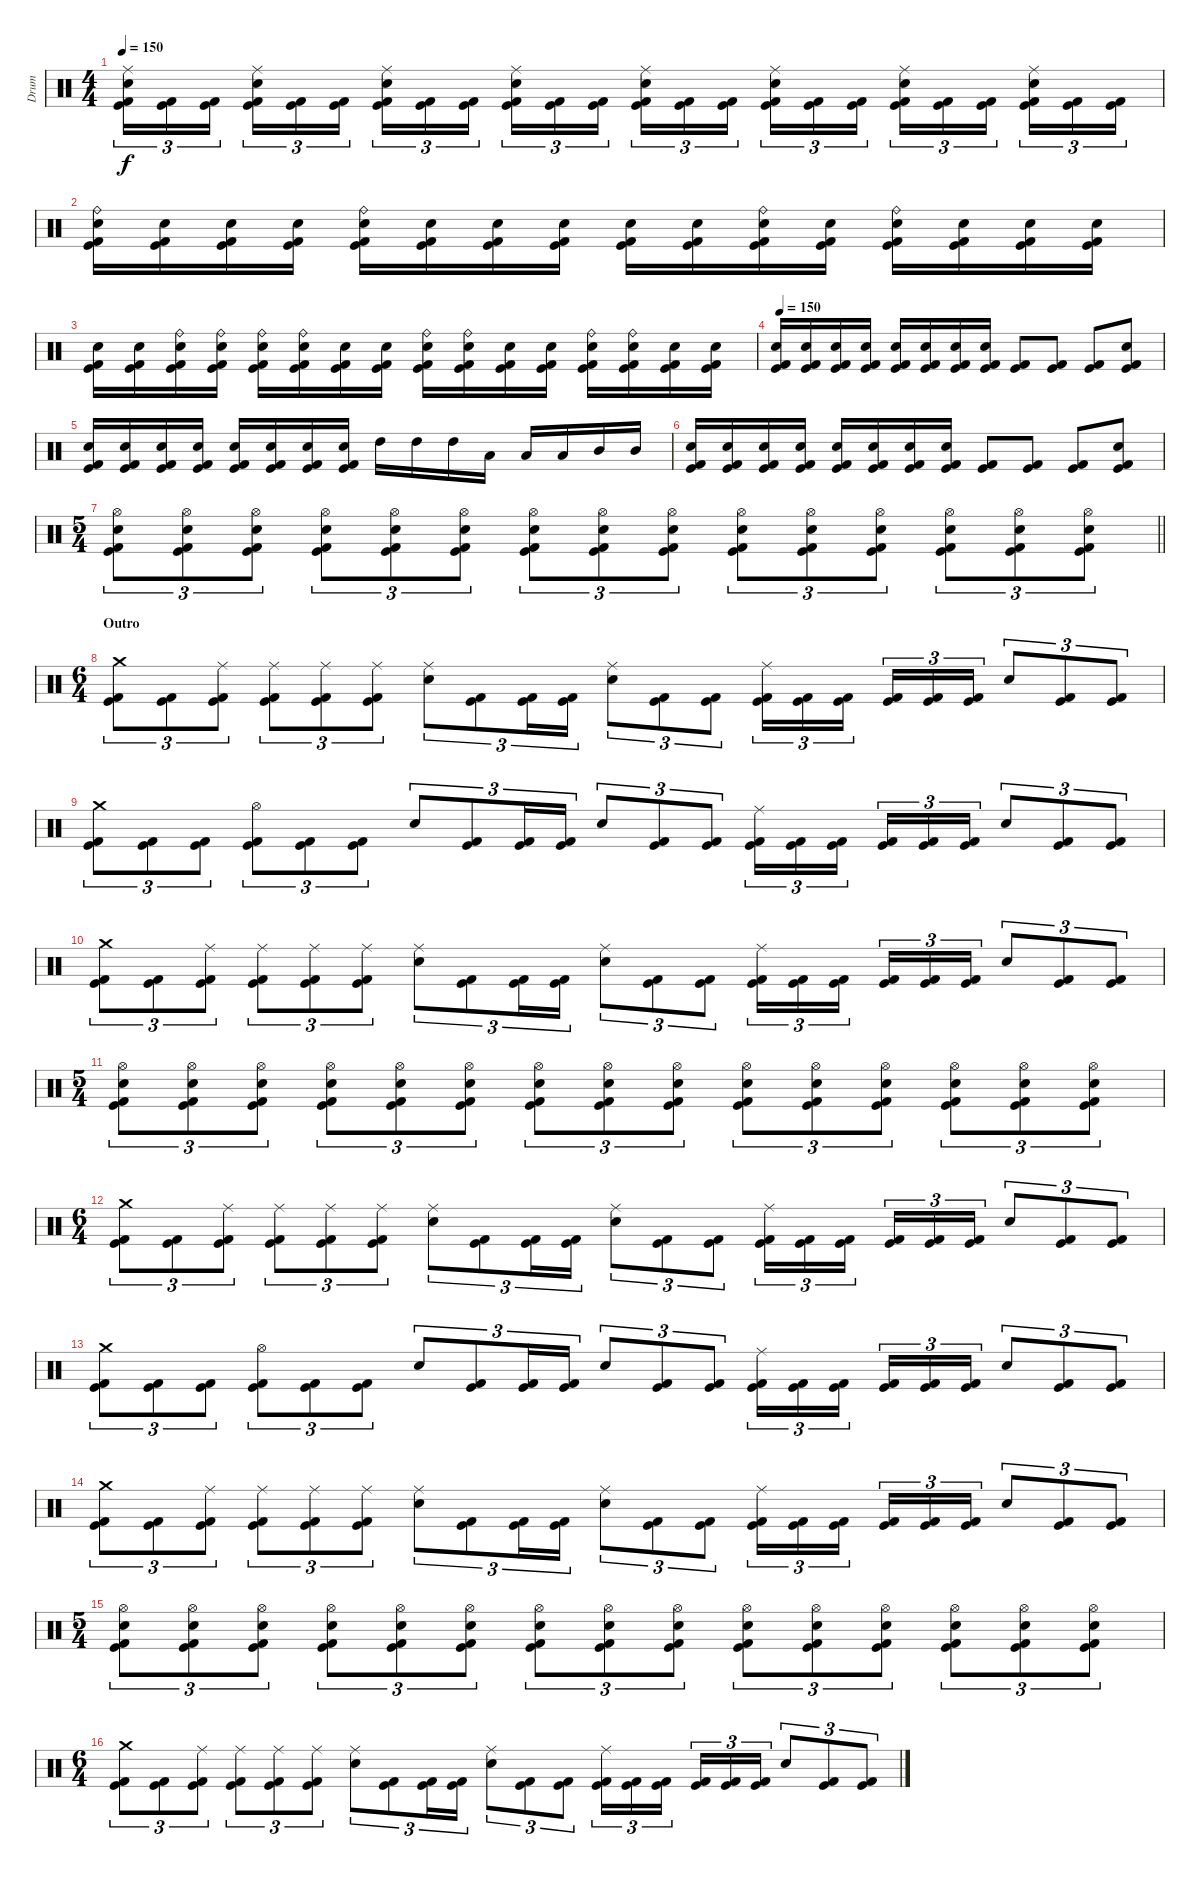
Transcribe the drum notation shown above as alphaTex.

\track ("Drum" "Drum") {instrument percussion}
\staff {score}
\articulation defaults
\ts (4 4)
\tempo 150
\clef neutral
\ks c
("Ride (middle)" "Electric Snare (hit)" "Kick (hit)" "Kick (hit) 2").16{tu (3 2) dy f} ("Kick (hit)" "Kick (hit) 2").16{tu (3 2)} ("Kick (hit)" "Kick (hit) 2").16{tu (3 2) beam splitsecondary} ("Ride (middle)" "Electric Snare (hit)" "Kick (hit)" "Kick (hit) 2").16{tu (3 2)} ("Kick (hit)" "Kick (hit) 2").16{tu (3 2)} ("Kick (hit)" "Kick (hit) 2").16{tu (3 2)} ("Ride (middle)" "Electric Snare (hit)" "Kick (hit)" "Kick (hit) 2").16{tu (3 2)} ("Kick (hit)" "Kick (hit) 2").16{tu (3 2)} ("Kick (hit)" "Kick (hit) 2").16{tu (3 2) beam splitsecondary} ("Ride (middle)" "Electric Snare (hit)" "Kick (hit)" "Kick (hit) 2").16{tu (3 2)} ("Kick (hit)" "Kick (hit) 2").16{tu (3 2)} ("Kick (hit)" "Kick (hit) 2").16{tu (3 2)} ("Ride (middle)" "Electric Snare (hit)" "Kick (hit)" "Kick (hit) 2").16{tu (3 2)} ("Kick (hit)" "Kick (hit) 2").16{tu (3 2)} ("Kick (hit)" "Kick (hit) 2").16{tu (3 2) beam splitsecondary} ("Ride (middle)" "Electric Snare (hit)" "Kick (hit)" "Kick (hit) 2").16{tu (3 2)} ("Kick (hit)" "Kick (hit) 2").16{tu (3 2)} ("Kick (hit)" "Kick (hit) 2").16{tu (3 2)} ("Ride (middle)" "Electric Snare (hit)" "Kick (hit)" "Kick (hit) 2").16{tu (3 2)} ("Kick (hit)" "Kick (hit) 2").16{tu (3 2)} ("Kick (hit)" "Kick (hit) 2").16{tu (3 2) beam splitsecondary} ("Ride (middle)" "Electric Snare (hit)" "Kick (hit)" "Kick (hit) 2").16{tu (3 2)} ("Kick (hit)" "Kick (hit) 2").16{tu (3 2)} ("Kick (hit)" "Kick (hit) 2").16{tu (3 2)} |
("Ride (bell)" "Electric Snare (hit)" "Kick (hit)" "Kick (hit) 2").16 ("Electric Snare (hit)" "Kick (hit)" "Kick (hit) 2").16 ("Electric Snare (hit)" "Kick (hit)" "Kick (hit) 2").16 ("Electric Snare (hit)" "Kick (hit)" "Kick (hit) 2").16 ("Ride (bell)" "Electric Snare (hit)" "Kick (hit)" "Kick (hit) 2").16 ("Electric Snare (hit)" "Kick (hit)" "Kick (hit) 2").16 ("Electric Snare (hit)" "Kick (hit)" "Kick (hit) 2").16 ("Electric Snare (hit)" "Kick (hit)" "Kick (hit) 2").16 ("Electric Snare (hit)" "Kick (hit)" "Kick (hit) 2").16 ("Electric Snare (hit)" "Kick (hit)" "Kick (hit) 2").16 ("Ride (bell)" "Electric Snare (hit)" "Kick (hit)" "Kick (hit) 2").16 ("Electric Snare (hit)" "Kick (hit)" "Kick (hit) 2").16 ("Ride (bell)" "Electric Snare (hit)" "Kick (hit)" "Kick (hit) 2").16 ("Electric Snare (hit)" "Kick (hit)" "Kick (hit) 2").16 ("Electric Snare (hit)" "Kick (hit)" "Kick (hit) 2").16 ("Electric Snare (hit)" "Kick (hit)" "Kick (hit) 2").16 |
("Electric Snare (hit)" "Kick (hit)" "Kick (hit) 2").16 ("Electric Snare (hit)" "Kick (hit)" "Kick (hit) 2").16 ("Ride (bell)" "Electric Snare (hit)" "Kick (hit)" "Kick (hit) 2").16 ("Ride (bell)" "Electric Snare (hit)" "Kick (hit)" "Kick (hit) 2").16 ("Ride (bell)" "Electric Snare (hit)" "Kick (hit)" "Kick (hit) 2").16 ("Ride (bell)" "Electric Snare (hit)" "Kick (hit)" "Kick (hit) 2").16 ("Electric Snare (hit)" "Kick (hit)" "Kick (hit) 2").16 ("Electric Snare (hit)" "Kick (hit)" "Kick (hit) 2").16 ("Ride (bell)" "Electric Snare (hit)" "Kick (hit)" "Kick (hit) 2").16 ("Ride (bell)" "Electric Snare (hit)" "Kick (hit)" "Kick (hit) 2").16 ("Electric Snare (hit)" "Kick (hit)" "Kick (hit) 2").16 ("Electric Snare (hit)" "Kick (hit)" "Kick (hit) 2").16 ("Ride (bell)" "Electric Snare (hit)" "Kick (hit)" "Kick (hit) 2").16 ("Ride (bell)" "Electric Snare (hit)" "Kick (hit)" "Kick (hit) 2").16 ("Electric Snare (hit)" "Kick (hit)" "Kick (hit) 2").16 ("Electric Snare (hit)" "Kick (hit)" "Kick (hit) 2").16 |
\tempo 150
("Electric Snare (hit)" "Kick (hit)" "Kick (hit) 2").16 ("Electric Snare (hit)" "Kick (hit)" "Kick (hit) 2").16 ("Electric Snare (hit)" "Kick (hit)" "Kick (hit) 2").16 ("Electric Snare (hit)" "Kick (hit)" "Kick (hit) 2").16 ("Electric Snare (hit)" "Kick (hit)" "Kick (hit) 2").16 ("Electric Snare (hit)" "Kick (hit)" "Kick (hit) 2").16 ("Electric Snare (hit)" "Kick (hit)" "Kick (hit) 2").16 ("Electric Snare (hit)" "Kick (hit)" "Kick (hit) 2").16 ("Kick (hit)" "Kick (hit) 2").8 ("Kick (hit)" "Kick (hit) 2").8 ("Kick (hit)" "Kick (hit) 2").8 ("Electric Snare (hit)" "Kick (hit)" "Kick (hit) 2").8 |
("Electric Snare (hit)" "Kick (hit)" "Kick (hit) 2").16 ("Electric Snare (hit)" "Kick (hit)" "Kick (hit) 2").16 ("Electric Snare (hit)" "Kick (hit)" "Kick (hit) 2").16 ("Electric Snare (hit)" "Kick (hit)" "Kick (hit) 2").16 ("Electric Snare (hit)" "Kick (hit)" "Kick (hit) 2").16 ("Electric Snare (hit)" "Kick (hit)" "Kick (hit) 2").16 ("Electric Snare (hit)" "Kick (hit)" "Kick (hit) 2").16 ("Electric Snare (hit)" "Kick (hit)" "Kick (hit) 2").16 "High Tom (hit)".16 "High Tom (hit)".16 "High Tom (hit)".16 "Low Tom (hit)".16 "Low Tom (hit)".16 "Low Tom (hit)".16 "Mid Tom (hit)".16 "Mid Tom (hit)".16 |
("Electric Snare (hit)" "Kick (hit)" "Kick (hit) 2").16 ("Electric Snare (hit)" "Kick (hit)" "Kick (hit) 2").16 ("Electric Snare (hit)" "Kick (hit)" "Kick (hit) 2").16 ("Electric Snare (hit)" "Kick (hit)" "Kick (hit) 2").16 ("Electric Snare (hit)" "Kick (hit)" "Kick (hit) 2").16 ("Electric Snare (hit)" "Kick (hit)" "Kick (hit) 2").16 ("Electric Snare (hit)" "Kick (hit)" "Kick (hit) 2").16 ("Electric Snare (hit)" "Kick (hit)" "Kick (hit) 2").16 ("Kick (hit)" "Kick (hit) 2").8 ("Kick (hit)" "Kick (hit) 2").8 ("Kick (hit)" "Kick (hit) 2").8 ("Electric Snare (hit)" "Kick (hit)" "Kick (hit) 2").8 |
\ts (5 4)
\barLineRight lightlight
("Hi-Hat (open)" "Electric Snare (hit)" "Kick (hit)" "Kick (hit) 2").8{tu (3 2)} ("Hi-Hat (open)" "Electric Snare (hit)" "Kick (hit)" "Kick (hit) 2").8{tu (3 2)} ("Hi-Hat (open)" "Electric Snare (hit)" "Kick (hit)" "Kick (hit) 2").8{tu (3 2)} ("Hi-Hat (open)" "Electric Snare (hit)" "Kick (hit)" "Kick (hit) 2").8{tu (3 2)} ("Hi-Hat (open)" "Electric Snare (hit)" "Kick (hit)" "Kick (hit) 2").8{tu (3 2)} ("Hi-Hat (open)" "Electric Snare (hit)" "Kick (hit)" "Kick (hit) 2").8{tu (3 2)} ("Hi-Hat (open)" "Electric Snare (hit)" "Kick (hit)" "Kick (hit) 2").8{tu (3 2)} ("Hi-Hat (open)" "Electric Snare (hit)" "Kick (hit)" "Kick (hit) 2").8{tu (3 2)} ("Hi-Hat (open)" "Electric Snare (hit)" "Kick (hit)" "Kick (hit) 2").8{tu (3 2)} ("Hi-Hat (open)" "Electric Snare (hit)" "Kick (hit)" "Kick (hit) 2").8{tu (3 2)} ("Hi-Hat (open)" "Electric Snare (hit)" "Kick (hit)" "Kick (hit) 2").8{tu (3 2)} ("Hi-Hat (open)" "Electric Snare (hit)" "Kick (hit)" "Kick (hit) 2").8{tu (3 2)} ("Hi-Hat (open)" "Electric Snare (hit)" "Kick (hit)" "Kick (hit) 2").8{tu (3 2)} ("Hi-Hat (open)" "Electric Snare (hit)" "Kick (hit)" "Kick (hit) 2").8{tu (3 2)} ("Hi-Hat (open)" "Electric Snare (hit)" "Kick (hit)" "Kick (hit) 2").8{tu (3 2)} |
\ts (6 4)
\section ("" "Outro")
("Crash medium (hit)" "Kick (hit)" "Kick (hit) 2").8{tu (3 2)} ("Kick (hit)" "Kick (hit) 2").8{tu (3 2)} ("Ride (middle)" "Kick (hit)" "Kick (hit) 2").8{tu (3 2)} ("Ride (middle)" "Kick (hit)" "Kick (hit) 2").8{tu (3 2)} ("Ride (middle)" "Kick (hit)" "Kick (hit) 2").8{tu (3 2)} ("Ride (middle)" "Kick (hit)" "Kick (hit) 2").8{tu (3 2)} ("Ride (middle)" "Electric Snare (hit)").8{tu (3 2)} ("Kick (hit)" "Kick (hit) 2").8{tu (3 2)} ("Kick (hit)" "Kick (hit) 2").16{tu (3 2)} ("Kick (hit)" "Kick (hit) 2").16{tu (3 2)} ("Ride (middle)" "Electric Snare (hit)").8{tu (3 2)} ("Kick (hit)" "Kick (hit) 2").8{tu (3 2)} ("Kick (hit)" "Kick (hit) 2").8{tu (3 2)} ("Ride (middle)" "Kick (hit)" "Kick (hit) 2").16{tu (3 2)} ("Kick (hit)" "Kick (hit) 2").16{tu (3 2)} ("Kick (hit)" "Kick (hit) 2").16{tu (3 2) beam splitsecondary} ("Kick (hit)" "Kick (hit) 2").16{tu (3 2)} ("Kick (hit)" "Kick (hit) 2").16{tu (3 2)} ("Kick (hit)" "Kick (hit) 2").16{tu (3 2)} "Electric Snare (hit)".8{tu (3 2)} ("Kick (hit)" "Kick (hit) 2").8{tu (3 2)} ("Kick (hit)" "Kick (hit) 2").8{tu (3 2)} |
("Crash medium (hit)" "Kick (hit)" "Kick (hit) 2").8{tu (3 2)} ("Kick (hit)" "Kick (hit) 2").8{tu (3 2)} ("Kick (hit)" "Kick (hit) 2").8{tu (3 2)} ("Hi-Hat (open)" "Kick (hit)" "Kick (hit) 2").8{tu (3 2)} ("Kick (hit)" "Kick (hit) 2").8{tu (3 2)} ("Kick (hit)" "Kick (hit) 2").8{tu (3 2)} "Electric Snare (hit)".8{tu (3 2)} ("Kick (hit)" "Kick (hit) 2").8{tu (3 2)} ("Kick (hit)" "Kick (hit) 2").16{tu (3 2)} ("Kick (hit)" "Kick (hit) 2").16{tu (3 2)} "Electric Snare (hit)".8{tu (3 2)} ("Kick (hit)" "Kick (hit) 2").8{tu (3 2)} ("Kick (hit)" "Kick (hit) 2").8{tu (3 2)} ("Ride (middle)" "Kick (hit)" "Kick (hit) 2").16{tu (3 2)} ("Kick (hit)" "Kick (hit) 2").16{tu (3 2)} ("Kick (hit)" "Kick (hit) 2").16{tu (3 2) beam splitsecondary} ("Kick (hit)" "Kick (hit) 2").16{tu (3 2)} ("Kick (hit)" "Kick (hit) 2").16{tu (3 2)} ("Kick (hit)" "Kick (hit) 2").16{tu (3 2)} "Electric Snare (hit)".8{tu (3 2)} ("Kick (hit)" "Kick (hit) 2").8{tu (3 2)} ("Kick (hit)" "Kick (hit) 2").8{tu (3 2)} |
("Crash medium (hit)" "Kick (hit)" "Kick (hit) 2").8{tu (3 2)} ("Kick (hit)" "Kick (hit) 2").8{tu (3 2)} ("Ride (middle)" "Kick (hit)" "Kick (hit) 2").8{tu (3 2)} ("Ride (middle)" "Kick (hit)" "Kick (hit) 2").8{tu (3 2)} ("Ride (middle)" "Kick (hit)" "Kick (hit) 2").8{tu (3 2)} ("Ride (middle)" "Kick (hit)" "Kick (hit) 2").8{tu (3 2)} ("Ride (middle)" "Electric Snare (hit)").8{tu (3 2)} ("Kick (hit)" "Kick (hit) 2").8{tu (3 2)} ("Kick (hit)" "Kick (hit) 2").16{tu (3 2)} ("Kick (hit)" "Kick (hit) 2").16{tu (3 2)} ("Ride (middle)" "Electric Snare (hit)").8{tu (3 2)} ("Kick (hit)" "Kick (hit) 2").8{tu (3 2)} ("Kick (hit)" "Kick (hit) 2").8{tu (3 2)} ("Ride (middle)" "Kick (hit)" "Kick (hit) 2").16{tu (3 2)} ("Kick (hit)" "Kick (hit) 2").16{tu (3 2)} ("Kick (hit)" "Kick (hit) 2").16{tu (3 2) beam splitsecondary} ("Kick (hit)" "Kick (hit) 2").16{tu (3 2)} ("Kick (hit)" "Kick (hit) 2").16{tu (3 2)} ("Kick (hit)" "Kick (hit) 2").16{tu (3 2)} "Electric Snare (hit)".8{tu (3 2)} ("Kick (hit)" "Kick (hit) 2").8{tu (3 2)} ("Kick (hit)" "Kick (hit) 2").8{tu (3 2)} |
\ts (5 4)
("Hi-Hat (open)" "Electric Snare (hit)" "Kick (hit)" "Kick (hit) 2").8{tu (3 2)} ("Hi-Hat (open)" "Electric Snare (hit)" "Kick (hit)" "Kick (hit) 2").8{tu (3 2)} ("Hi-Hat (open)" "Electric Snare (hit)" "Kick (hit)" "Kick (hit) 2").8{tu (3 2)} ("Hi-Hat (open)" "Electric Snare (hit)" "Kick (hit)" "Kick (hit) 2").8{tu (3 2)} ("Hi-Hat (open)" "Electric Snare (hit)" "Kick (hit)" "Kick (hit) 2").8{tu (3 2)} ("Hi-Hat (open)" "Electric Snare (hit)" "Kick (hit)" "Kick (hit) 2").8{tu (3 2)} ("Hi-Hat (open)" "Electric Snare (hit)" "Kick (hit)" "Kick (hit) 2").8{tu (3 2)} ("Hi-Hat (open)" "Electric Snare (hit)" "Kick (hit)" "Kick (hit) 2").8{tu (3 2)} ("Hi-Hat (open)" "Electric Snare (hit)" "Kick (hit)" "Kick (hit) 2").8{tu (3 2)} ("Hi-Hat (open)" "Electric Snare (hit)" "Kick (hit)" "Kick (hit) 2").8{tu (3 2)} ("Hi-Hat (open)" "Electric Snare (hit)" "Kick (hit)" "Kick (hit) 2").8{tu (3 2)} ("Hi-Hat (open)" "Electric Snare (hit)" "Kick (hit)" "Kick (hit) 2").8{tu (3 2)} ("Hi-Hat (open)" "Electric Snare (hit)" "Kick (hit)" "Kick (hit) 2").8{tu (3 2)} ("Hi-Hat (open)" "Electric Snare (hit)" "Kick (hit)" "Kick (hit) 2").8{tu (3 2)} ("Hi-Hat (open)" "Electric Snare (hit)" "Kick (hit)" "Kick (hit) 2").8{tu (3 2)} |
\ts (6 4)
("Crash medium (hit)" "Kick (hit)" "Kick (hit) 2").8{tu (3 2)} ("Kick (hit)" "Kick (hit) 2").8{tu (3 2)} ("Ride (middle)" "Kick (hit)" "Kick (hit) 2").8{tu (3 2)} ("Ride (middle)" "Kick (hit)" "Kick (hit) 2").8{tu (3 2)} ("Ride (middle)" "Kick (hit)" "Kick (hit) 2").8{tu (3 2)} ("Ride (middle)" "Kick (hit)" "Kick (hit) 2").8{tu (3 2)} ("Ride (middle)" "Electric Snare (hit)").8{tu (3 2)} ("Kick (hit)" "Kick (hit) 2").8{tu (3 2)} ("Kick (hit)" "Kick (hit) 2").16{tu (3 2)} ("Kick (hit)" "Kick (hit) 2").16{tu (3 2)} ("Ride (middle)" "Electric Snare (hit)").8{tu (3 2)} ("Kick (hit)" "Kick (hit) 2").8{tu (3 2)} ("Kick (hit)" "Kick (hit) 2").8{tu (3 2)} ("Ride (middle)" "Kick (hit)" "Kick (hit) 2").16{tu (3 2)} ("Kick (hit)" "Kick (hit) 2").16{tu (3 2)} ("Kick (hit)" "Kick (hit) 2").16{tu (3 2) beam splitsecondary} ("Kick (hit)" "Kick (hit) 2").16{tu (3 2)} ("Kick (hit)" "Kick (hit) 2").16{tu (3 2)} ("Kick (hit)" "Kick (hit) 2").16{tu (3 2)} "Electric Snare (hit)".8{tu (3 2)} ("Kick (hit)" "Kick (hit) 2").8{tu (3 2)} ("Kick (hit)" "Kick (hit) 2").8{tu (3 2)} |
("Crash medium (hit)" "Kick (hit)" "Kick (hit) 2").8{tu (3 2)} ("Kick (hit)" "Kick (hit) 2").8{tu (3 2)} ("Kick (hit)" "Kick (hit) 2").8{tu (3 2)} ("Hi-Hat (open)" "Kick (hit)" "Kick (hit) 2").8{tu (3 2)} ("Kick (hit)" "Kick (hit) 2").8{tu (3 2)} ("Kick (hit)" "Kick (hit) 2").8{tu (3 2)} "Electric Snare (hit)".8{tu (3 2)} ("Kick (hit)" "Kick (hit) 2").8{tu (3 2)} ("Kick (hit)" "Kick (hit) 2").16{tu (3 2)} ("Kick (hit)" "Kick (hit) 2").16{tu (3 2)} "Electric Snare (hit)".8{tu (3 2)} ("Kick (hit)" "Kick (hit) 2").8{tu (3 2)} ("Kick (hit)" "Kick (hit) 2").8{tu (3 2)} ("Ride (middle)" "Kick (hit)" "Kick (hit) 2").16{tu (3 2)} ("Kick (hit)" "Kick (hit) 2").16{tu (3 2)} ("Kick (hit)" "Kick (hit) 2").16{tu (3 2) beam splitsecondary} ("Kick (hit)" "Kick (hit) 2").16{tu (3 2)} ("Kick (hit)" "Kick (hit) 2").16{tu (3 2)} ("Kick (hit)" "Kick (hit) 2").16{tu (3 2)} "Electric Snare (hit)".8{tu (3 2)} ("Kick (hit)" "Kick (hit) 2").8{tu (3 2)} ("Kick (hit)" "Kick (hit) 2").8{tu (3 2)} |
("Crash medium (hit)" "Kick (hit)" "Kick (hit) 2").8{tu (3 2)} ("Kick (hit)" "Kick (hit) 2").8{tu (3 2)} ("Ride (middle)" "Kick (hit)" "Kick (hit) 2").8{tu (3 2)} ("Ride (middle)" "Kick (hit)" "Kick (hit) 2").8{tu (3 2)} ("Ride (middle)" "Kick (hit)" "Kick (hit) 2").8{tu (3 2)} ("Ride (middle)" "Kick (hit)" "Kick (hit) 2").8{tu (3 2)} ("Ride (middle)" "Electric Snare (hit)").8{tu (3 2)} ("Kick (hit)" "Kick (hit) 2").8{tu (3 2)} ("Kick (hit)" "Kick (hit) 2").16{tu (3 2)} ("Kick (hit)" "Kick (hit) 2").16{tu (3 2)} ("Ride (middle)" "Electric Snare (hit)").8{tu (3 2)} ("Kick (hit)" "Kick (hit) 2").8{tu (3 2)} ("Kick (hit)" "Kick (hit) 2").8{tu (3 2)} ("Ride (middle)" "Kick (hit)" "Kick (hit) 2").16{tu (3 2)} ("Kick (hit)" "Kick (hit) 2").16{tu (3 2)} ("Kick (hit)" "Kick (hit) 2").16{tu (3 2) beam splitsecondary} ("Kick (hit)" "Kick (hit) 2").16{tu (3 2)} ("Kick (hit)" "Kick (hit) 2").16{tu (3 2)} ("Kick (hit)" "Kick (hit) 2").16{tu (3 2)} "Electric Snare (hit)".8{tu (3 2)} ("Kick (hit)" "Kick (hit) 2").8{tu (3 2)} ("Kick (hit)" "Kick (hit) 2").8{tu (3 2)} |
\ts (5 4)
("Hi-Hat (open)" "Electric Snare (hit)" "Kick (hit)" "Kick (hit) 2").8{tu (3 2)} ("Hi-Hat (open)" "Electric Snare (hit)" "Kick (hit)" "Kick (hit) 2").8{tu (3 2)} ("Hi-Hat (open)" "Electric Snare (hit)" "Kick (hit)" "Kick (hit) 2").8{tu (3 2)} ("Hi-Hat (open)" "Electric Snare (hit)" "Kick (hit)" "Kick (hit) 2").8{tu (3 2)} ("Hi-Hat (open)" "Electric Snare (hit)" "Kick (hit)" "Kick (hit) 2").8{tu (3 2)} ("Hi-Hat (open)" "Electric Snare (hit)" "Kick (hit)" "Kick (hit) 2").8{tu (3 2)} ("Hi-Hat (open)" "Electric Snare (hit)" "Kick (hit)" "Kick (hit) 2").8{tu (3 2)} ("Hi-Hat (open)" "Electric Snare (hit)" "Kick (hit)" "Kick (hit) 2").8{tu (3 2)} ("Hi-Hat (open)" "Electric Snare (hit)" "Kick (hit)" "Kick (hit) 2").8{tu (3 2)} ("Hi-Hat (open)" "Electric Snare (hit)" "Kick (hit)" "Kick (hit) 2").8{tu (3 2)} ("Hi-Hat (open)" "Electric Snare (hit)" "Kick (hit)" "Kick (hit) 2").8{tu (3 2)} ("Hi-Hat (open)" "Electric Snare (hit)" "Kick (hit)" "Kick (hit) 2").8{tu (3 2)} ("Hi-Hat (open)" "Electric Snare (hit)" "Kick (hit)" "Kick (hit) 2").8{tu (3 2)} ("Hi-Hat (open)" "Electric Snare (hit)" "Kick (hit)" "Kick (hit) 2").8{tu (3 2)} ("Hi-Hat (open)" "Electric Snare (hit)" "Kick (hit)" "Kick (hit) 2").8{tu (3 2)} |
\ts (6 4)
("Crash medium (hit)" "Kick (hit)" "Kick (hit) 2").8{tu (3 2)} ("Kick (hit)" "Kick (hit) 2").8{tu (3 2)} ("Ride (middle)" "Kick (hit)" "Kick (hit) 2").8{tu (3 2)} ("Ride (middle)" "Kick (hit)" "Kick (hit) 2").8{tu (3 2)} ("Ride (middle)" "Kick (hit)" "Kick (hit) 2").8{tu (3 2)} ("Ride (middle)" "Kick (hit)" "Kick (hit) 2").8{tu (3 2)} ("Ride (middle)" "Electric Snare (hit)").8{tu (3 2)} ("Kick (hit)" "Kick (hit) 2").8{tu (3 2)} ("Kick (hit)" "Kick (hit) 2").16{tu (3 2)} ("Kick (hit)" "Kick (hit) 2").16{tu (3 2)} ("Ride (middle)" "Electric Snare (hit)").8{tu (3 2)} ("Kick (hit)" "Kick (hit) 2").8{tu (3 2)} ("Kick (hit)" "Kick (hit) 2").8{tu (3 2)} ("Ride (middle)" "Kick (hit)" "Kick (hit) 2").16{tu (3 2)} ("Kick (hit)" "Kick (hit) 2").16{tu (3 2)} ("Kick (hit)" "Kick (hit) 2").16{tu (3 2) beam splitsecondary} ("Kick (hit)" "Kick (hit) 2").16{tu (3 2)} ("Kick (hit)" "Kick (hit) 2").16{tu (3 2)} ("Kick (hit)" "Kick (hit) 2").16{tu (3 2)} "Electric Snare (hit)".8{tu (3 2)} ("Kick (hit)" "Kick (hit) 2").8{tu (3 2)} ("Kick (hit)" "Kick (hit) 2").8{tu (3 2)}
